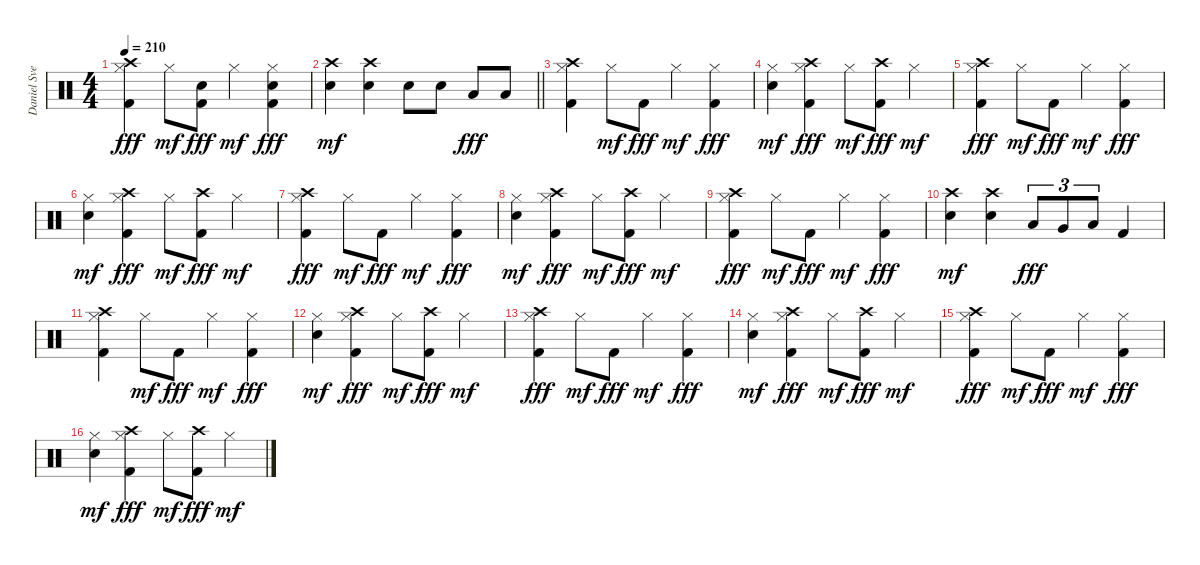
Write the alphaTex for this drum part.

\track ("Daniel Svensson" "Daniel Sve") {instrument percussion}
\staff {score}
\articulation defaults
\ts (4 4)
\tempo 210
\clef neutral
\ks c
("Crash high (hit)" "Hi-Hat (closed)" "Kick (hit) 2").4{dy fff} "Hi-Hat (closed)".8{dy mf} ("Electric Snare (hit)" "Kick (hit) 2").8{dy fff} "Hi-Hat (closed)".4{dy mf} ("Hi-Hat (closed)" "Electric Snare (hit)" "Kick (hit) 2").4{dy fff} |
\barLineRight lightlight
("Crash high (hit)" "Electric Snare (hit)").4{dy mf} ("Crash high (hit)" "Electric Snare (hit)").4 "Electric Snare (hit)".8 "Electric Snare (hit)".8 "Low Floor Tom (hit)".8{dy fff} "Low Floor Tom (hit)".8 |
("Crash high (hit)" "Hi-Hat (closed)" "Kick (hit) 2").4 "Hi-Hat (closed)".8{dy mf} "Kick (hit) 2".8{dy fff} "Hi-Hat (closed)".4{dy mf} ("Hi-Hat (closed)" "Kick (hit) 2").4{dy fff} |
("Hi-Hat (closed)" "Electric Snare (hit)").4{dy mf} ("Crash high (hit)" "Hi-Hat (closed)" "Kick (hit) 2").4{dy fff} "Hi-Hat (closed)".8{dy mf} ("Crash high (hit)" "Kick (hit) 2").8{dy fff} "Hi-Hat (closed)".4{dy mf} |
("Crash high (hit)" "Hi-Hat (closed)" "Kick (hit) 2").4{dy fff} "Hi-Hat (closed)".8{dy mf} "Kick (hit) 2".8{dy fff} "Hi-Hat (closed)".4{dy mf} ("Hi-Hat (closed)" "Kick (hit) 2").4{dy fff} |
("Hi-Hat (closed)" "Electric Snare (hit)").4{dy mf} ("Crash high (hit)" "Hi-Hat (closed)" "Kick (hit) 2").4{dy fff} "Hi-Hat (closed)".8{dy mf} ("Crash high (hit)" "Kick (hit) 2").8{dy fff} "Hi-Hat (closed)".4{dy mf} |
("Crash high (hit)" "Hi-Hat (closed)" "Kick (hit) 2").4{dy fff} "Hi-Hat (closed)".8{dy mf} "Kick (hit) 2".8{dy fff} "Hi-Hat (closed)".4{dy mf} ("Hi-Hat (closed)" "Kick (hit) 2").4{dy fff} |
("Hi-Hat (closed)" "Electric Snare (hit)").4{dy mf} ("Crash high (hit)" "Hi-Hat (closed)" "Kick (hit) 2").4{dy fff} "Hi-Hat (closed)".8{dy mf} ("Crash high (hit)" "Kick (hit) 2").8{dy fff} "Hi-Hat (closed)".4{dy mf} |
("Crash high (hit)" "Hi-Hat (closed)" "Kick (hit) 2").4{dy fff} "Hi-Hat (closed)".8{dy mf} "Kick (hit) 2".8{dy fff} "Hi-Hat (closed)".4{dy mf} ("Hi-Hat (closed)" "Kick (hit) 2").4{dy fff} |
("Crash high (hit)" "Electric Snare (hit)").4{dy mf} ("Crash high (hit)" "Electric Snare (hit)").4 "Low Tom (hit)".8{tu (3 2) dy fff} "Very Low Tom (hit)".8{tu (3 2)} "Low Floor Tom (hit)".8{tu (3 2)} "Kick (hit) 2".4 |
("Crash high (hit)" "Hi-Hat (closed)" "Kick (hit) 2").4 "Hi-Hat (closed)".8{dy mf} "Kick (hit) 2".8{dy fff} "Hi-Hat (closed)".4{dy mf} ("Hi-Hat (closed)" "Kick (hit) 2").4{dy fff} |
("Hi-Hat (closed)" "Electric Snare (hit)").4{dy mf} ("Crash high (hit)" "Hi-Hat (closed)" "Kick (hit) 2").4{dy fff} "Hi-Hat (closed)".8{dy mf} ("Crash high (hit)" "Kick (hit) 2").8{dy fff} "Hi-Hat (closed)".4{dy mf} |
("Crash high (hit)" "Hi-Hat (closed)" "Kick (hit) 2").4{dy fff} "Hi-Hat (closed)".8{dy mf} "Kick (hit) 2".8{dy fff} "Hi-Hat (closed)".4{dy mf} ("Hi-Hat (closed)" "Kick (hit) 2").4{dy fff} |
("Hi-Hat (closed)" "Electric Snare (hit)").4{dy mf} ("Crash high (hit)" "Hi-Hat (closed)" "Kick (hit) 2").4{dy fff} "Hi-Hat (closed)".8{dy mf} ("Crash high (hit)" "Kick (hit) 2").8{dy fff} "Hi-Hat (closed)".4{dy mf} |
("Crash high (hit)" "Hi-Hat (closed)" "Kick (hit) 2").4{dy fff} "Hi-Hat (closed)".8{dy mf} "Kick (hit) 2".8{dy fff} "Hi-Hat (closed)".4{dy mf} ("Hi-Hat (closed)" "Kick (hit) 2").4{dy fff} |
("Hi-Hat (closed)" "Electric Snare (hit)").4{dy mf} ("Crash high (hit)" "Hi-Hat (closed)" "Kick (hit) 2").4{dy fff} "Hi-Hat (closed)".8{dy mf} ("Crash high (hit)" "Kick (hit) 2").8{dy fff} "Hi-Hat (closed)".4{dy mf}
